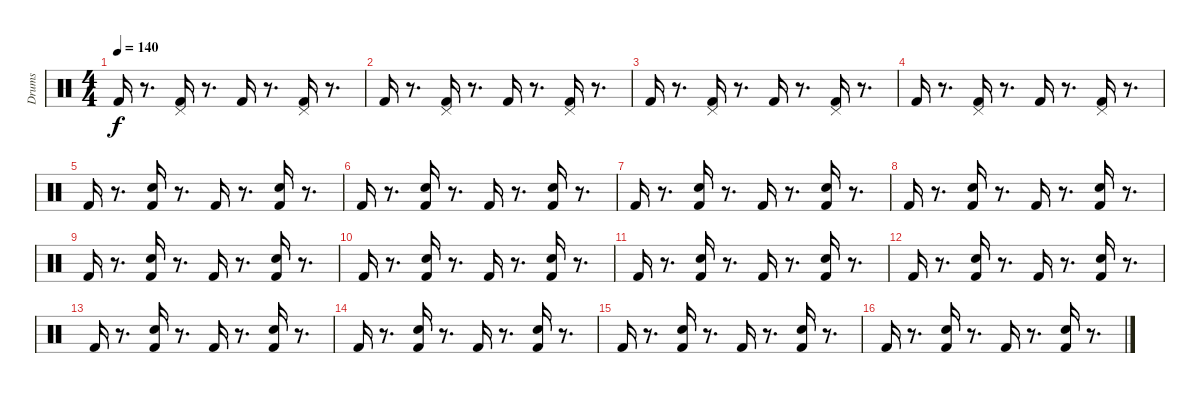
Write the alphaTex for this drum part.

\track ("Drums" "Drums") {instrument percussion}
\staff {score}
\articulation defaults
\ts (4 4)
\tempo 140
\clef neutral
\ks c "Kick (hit) 2".16{dy f}
r.8{d} ("Pedal Hi-Hat (hit)" "Kick (hit) 2").16 r.8{d} "Kick (hit) 2".16 r.8{d} ("Pedal Hi-Hat (hit)" "Kick (hit) 2").16 r.8{d} |
"Kick (hit) 2".16 r.8{d} ("Pedal Hi-Hat (hit)" "Kick (hit) 2").16 r.8{d} "Kick (hit) 2".16 r.8{d} ("Pedal Hi-Hat (hit)" "Kick (hit) 2").16 r.8{d} |
"Kick (hit) 2".16 r.8{d} ("Kick (hit) 2" "Pedal Hi-Hat (hit)").16 r.8{d} "Kick (hit) 2".16 r.8{d} ("Pedal Hi-Hat (hit)" "Kick (hit) 2").16 r.8{d} |
"Kick (hit) 2".16 r.8{d} ("Pedal Hi-Hat (hit)" "Kick (hit) 2").16 r.8{d} "Kick (hit) 2".16 r.8{d} ("Pedal Hi-Hat (hit)" "Kick (hit) 2").16 r.8{d} |
"Kick (hit) 2".16 r.8{d} ("Hand Clap (hit)" "Kick (hit) 2").16 r.8{d} "Kick (hit) 2".16 r.8{d} ("Hand Clap (hit)" "Kick (hit) 2").16 r.8{d} |
"Kick (hit) 2".16 r.8{d} ("Hand Clap (hit)" "Kick (hit) 2").16 r.8{d} "Kick (hit) 2".16 r.8{d} ("Hand Clap (hit)" "Kick (hit) 2").16 r.8{d} |
"Kick (hit) 2".16 r.8{d} ("Hand Clap (hit)" "Kick (hit) 2").16 r.8{d} "Kick (hit) 2".16 r.8{d} ("Hand Clap (hit)" "Kick (hit) 2").16 r.8{d} |
"Kick (hit) 2".16 r.8{d} ("Hand Clap (hit)" "Kick (hit) 2").16 r.8{d} "Kick (hit) 2".16 r.8{d} ("Hand Clap (hit)" "Kick (hit) 2").16 r.8{d} |
"Kick (hit) 2".16 r.8{d} ("Hand Clap (hit)" "Kick (hit) 2").16 r.8{d} "Kick (hit) 2".16 r.8{d} ("Hand Clap (hit)" "Kick (hit) 2").16 r.8{d} |
"Kick (hit) 2".16 r.8{d} ("Hand Clap (hit)" "Kick (hit) 2").16 r.8{d} "Kick (hit) 2".16 r.8{d} ("Hand Clap (hit)" "Kick (hit) 2").16 r.8{d} |
"Kick (hit) 2".16 r.8{d} ("Hand Clap (hit)" "Kick (hit) 2").16 r.8{d} "Kick (hit) 2".16 r.8{d} ("Hand Clap (hit)" "Kick (hit) 2").16 r.8{d} |
"Kick (hit) 2".16 r.8{d} ("Hand Clap (hit)" "Kick (hit) 2").16 r.8{d} "Kick (hit) 2".16 r.8{d} ("Hand Clap (hit)" "Kick (hit) 2").16 r.8{d} |
"Kick (hit) 2".16 r.8{d} ("Hand Clap (hit)" "Kick (hit) 2").16 r.8{d} "Kick (hit) 2".16 r.8{d} ("Hand Clap (hit)" "Kick (hit) 2").16 r.8{d} |
"Kick (hit) 2".16 r.8{d} ("Hand Clap (hit)" "Kick (hit) 2").16 r.8{d} "Kick (hit) 2".16 r.8{d} ("Hand Clap (hit)" "Kick (hit) 2").16 r.8{d} |
"Kick (hit) 2".16 r.8{d} ("Hand Clap (hit)" "Kick (hit) 2").16 r.8{d} "Kick (hit) 2".16 r.8{d} ("Hand Clap (hit)" "Kick (hit) 2").16 r.8{d} |
"Kick (hit) 2".16 r.8{d} ("Hand Clap (hit)" "Kick (hit) 2").16 r.8{d} "Kick (hit) 2".16 r.8{d} ("Hand Clap (hit)" "Kick (hit) 2").16 r.8{d}
